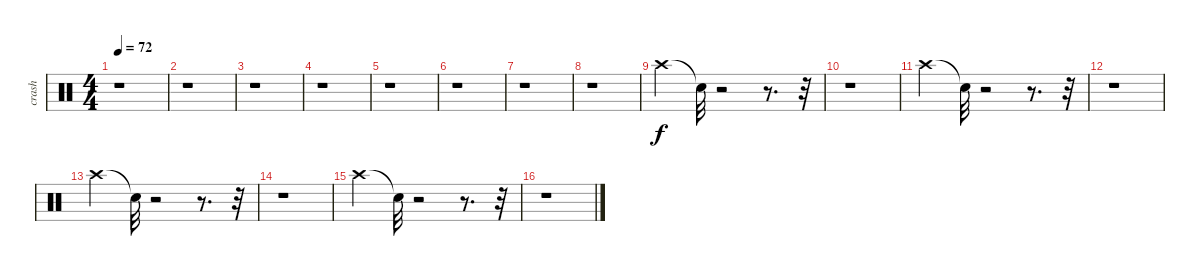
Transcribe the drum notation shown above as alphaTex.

\track ("crash" "crash") {instrument percussion}
\staff {score}
\articulation defaults
\ts (4 4)
\tempo 72
\clef neutral
\ks c
r.1{dy f} |
r.1 |
r.1 |
r.1 |
r.1 |
r.1 |
r.1 |
r.1 |
"Crash high (hit)".4 "Snare (hit)"{t}.32 r.2 r.8{d} r.32 |
r.1 |
"Crash high (hit)".4 "Snare (hit)"{t}.32 r.2 r.8{d} r.32 |
r.1 |
"Crash high (hit)".4 "Snare (hit)"{t}.32 r.2 r.8{d} r.32 |
r.1 |
"Crash high (hit)".4 "Snare (hit)"{t}.32 r.2 r.8{d} r.32 |
r.1
